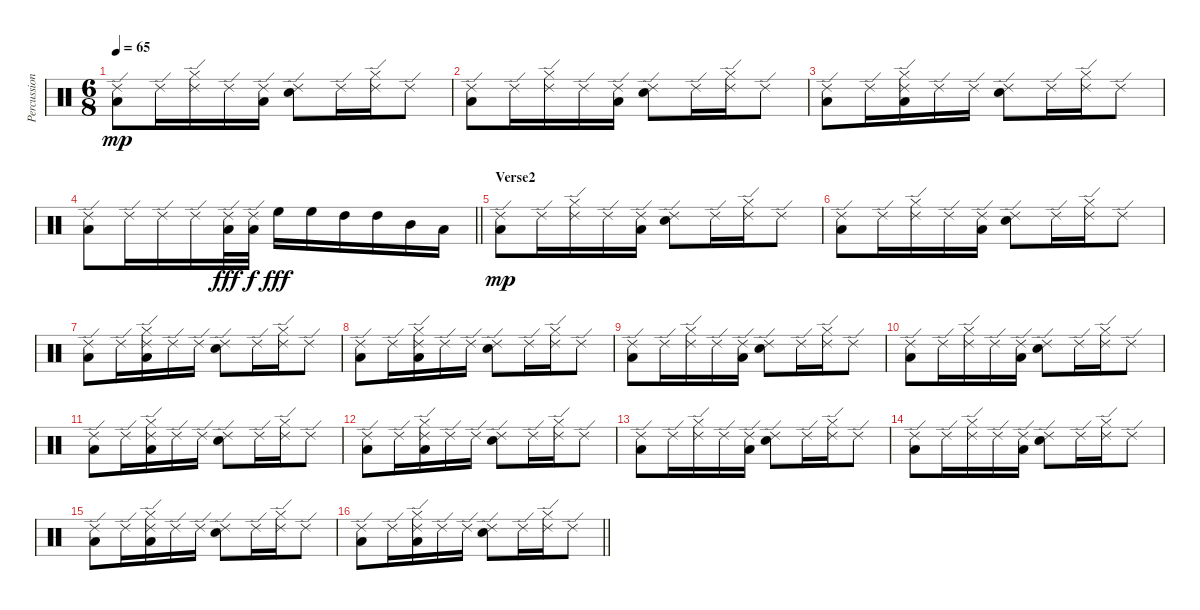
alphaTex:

\track ("Percussions" "Percussion") {instrument percussion}
\staff {score}
\articulation defaults
\ts (6 8)
\tempo 65
\clef neutral
\ks c
("Ride (edge) 2" "Low Tom (hit)").8{dy mp} "Ride (edge) 2".16 ("Ride (edge) 2" "Hi-Hat (closed)").16 "Ride (edge) 2".16 ("Ride (edge) 2" "Low Tom (hit)").16 ("Ride (edge) 2" "Electric Snare (hit)").8 "Ride (edge) 2".16 ("Ride (edge) 2" "Hi-Hat (closed)").16 "Ride (edge) 2".8 |
("Ride (edge) 2" "Low Tom (hit)").8 "Ride (edge) 2".16 ("Ride (edge) 2" "Hi-Hat (closed)").16 "Ride (edge) 2".16 ("Ride (edge) 2" "Low Tom (hit)").16 ("Ride (edge) 2" "Electric Snare (hit)").8 "Ride (edge) 2".16 ("Ride (edge) 2" "Hi-Hat (closed)").16 "Ride (edge) 2".8 |
("Ride (edge) 2" "Low Tom (hit)").8 "Ride (edge) 2".16 ("Ride (edge) 2" "Hi-Hat (closed)" "Low Tom (hit)").16 "Ride (edge) 2".16 "Ride (edge) 2".16 ("Ride (edge) 2" "Electric Snare (hit)").8 "Ride (edge) 2".16 ("Ride (edge) 2" "Hi-Hat (closed)").16 "Ride (edge) 2".8 |
\barLineRight lightlight
("Ride (edge) 2" "Low Tom (hit)").8 "Ride (edge) 2".16 "Ride (edge) 2".16 "Ride (edge) 2".16 ("Ride (edge) 2" "Low Tom (hit)").32{dy fff} ("Ride (edge) 2" "Low Tom (hit)").32{dy f} "High Floor Tom (hit)".16{dy fff} "High Floor Tom (hit)".16 "High Tom (hit)".16 "High Tom (hit)".16 "Mid Tom (hit)".16 "Low Tom (hit)".16 |
\section ("" "Verse2")
("Ride (edge) 2" "Low Tom (hit)").8{dy mp} "Ride (edge) 2".16 ("Ride (edge) 2" "Hi-Hat (closed)").16 "Ride (edge) 2".16 ("Ride (edge) 2" "Low Tom (hit)").16 ("Ride (edge) 2" "Electric Snare (hit)").8 "Ride (edge) 2".16 ("Ride (edge) 2" "Hi-Hat (closed)").16 "Ride (edge) 2".8 |
("Ride (edge) 2" "Low Tom (hit)").8 "Ride (edge) 2".16 ("Ride (edge) 2" "Hi-Hat (closed)").16 "Ride (edge) 2".16 ("Ride (edge) 2" "Low Tom (hit)").16 ("Ride (edge) 2" "Electric Snare (hit)").8 "Ride (edge) 2".16 ("Ride (edge) 2" "Hi-Hat (closed)").16 "Ride (edge) 2".8 |
("Ride (edge) 2" "Low Tom (hit)").8 "Ride (edge) 2".16 ("Ride (edge) 2" "Hi-Hat (closed)" "Low Tom (hit)").16 "Ride (edge) 2".16 "Ride (edge) 2".16 ("Ride (edge) 2" "Electric Snare (hit)").8 "Ride (edge) 2".16 ("Ride (edge) 2" "Hi-Hat (closed)").16 "Ride (edge) 2".8 |
("Ride (edge) 2" "Low Tom (hit)").8 "Ride (edge) 2".16 ("Ride (edge) 2" "Hi-Hat (closed)" "Low Tom (hit)").16 "Ride (edge) 2".16 "Ride (edge) 2".16 ("Ride (edge) 2" "Electric Snare (hit)").8 "Ride (edge) 2".16 ("Ride (edge) 2" "Hi-Hat (closed)").16 "Ride (edge) 2".8 |
("Ride (edge) 2" "Low Tom (hit)").8 "Ride (edge) 2".16 ("Ride (edge) 2" "Hi-Hat (closed)").16 "Ride (edge) 2".16 ("Ride (edge) 2" "Low Tom (hit)").16 ("Ride (edge) 2" "Electric Snare (hit)").8 "Ride (edge) 2".16 ("Ride (edge) 2" "Hi-Hat (closed)").16 "Ride (edge) 2".8 |
("Ride (edge) 2" "Low Tom (hit)").8 "Ride (edge) 2".16 ("Ride (edge) 2" "Hi-Hat (closed)").16 "Ride (edge) 2".16 ("Ride (edge) 2" "Low Tom (hit)").16 ("Ride (edge) 2" "Electric Snare (hit)").8 "Ride (edge) 2".16 ("Ride (edge) 2" "Hi-Hat (closed)").16 "Ride (edge) 2".8 |
("Ride (edge) 2" "Low Tom (hit)").8 "Ride (edge) 2".16 ("Ride (edge) 2" "Hi-Hat (closed)" "Low Tom (hit)").16 "Ride (edge) 2".16 "Ride (edge) 2".16 ("Ride (edge) 2" "Electric Snare (hit)").8 "Ride (edge) 2".16 ("Ride (edge) 2" "Hi-Hat (closed)").16 "Ride (edge) 2".8 |
("Ride (edge) 2" "Low Tom (hit)").8 "Ride (edge) 2".16 ("Ride (edge) 2" "Hi-Hat (closed)" "Low Tom (hit)").16 "Ride (edge) 2".16 "Ride (edge) 2".16 ("Ride (edge) 2" "Electric Snare (hit)").8 "Ride (edge) 2".16 ("Ride (edge) 2" "Hi-Hat (closed)").16 "Ride (edge) 2".8 |
("Ride (edge) 2" "Low Tom (hit)").8 "Ride (edge) 2".16 ("Ride (edge) 2" "Hi-Hat (closed)").16 "Ride (edge) 2".16 ("Ride (edge) 2" "Low Tom (hit)").16 ("Ride (edge) 2" "Electric Snare (hit)").8 "Ride (edge) 2".16 ("Ride (edge) 2" "Hi-Hat (closed)").16 "Ride (edge) 2".8 |
("Ride (edge) 2" "Low Tom (hit)").8 "Ride (edge) 2".16 ("Ride (edge) 2" "Hi-Hat (closed)").16 "Ride (edge) 2".16 ("Ride (edge) 2" "Low Tom (hit)").16 ("Ride (edge) 2" "Electric Snare (hit)").8 "Ride (edge) 2".16 ("Ride (edge) 2" "Hi-Hat (closed)").16 "Ride (edge) 2".8 |
("Ride (edge) 2" "Low Tom (hit)").8 "Ride (edge) 2".16 ("Ride (edge) 2" "Hi-Hat (closed)" "Low Tom (hit)").16 "Ride (edge) 2".16 "Ride (edge) 2".16 ("Ride (edge) 2" "Electric Snare (hit)").8 "Ride (edge) 2".16 ("Ride (edge) 2" "Hi-Hat (closed)").16 "Ride (edge) 2".8 |
\barLineRight lightlight
("Ride (edge) 2" "Low Tom (hit)").8 "Ride (edge) 2".16 ("Ride (edge) 2" "Hi-Hat (closed)" "Low Tom (hit)").16 "Ride (edge) 2".16 "Ride (edge) 2".16 ("Ride (edge) 2" "Electric Snare (hit)").8 "Ride (edge) 2".16 ("Ride (edge) 2" "Hi-Hat (closed)").16 "Ride (edge) 2".8
